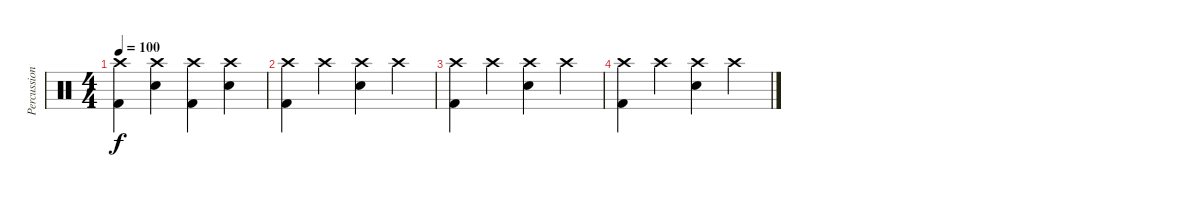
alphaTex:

\track ("Percussion" "Percussion") {instrument percussion}
\staff {score}
\articulation defaults
\ts (4 4)
\tempo 100
\clef neutral
\ks c
("Crash high (hit)" "Kick (hit) 2").4{dy f} ("Crash high (hit)" "Electric Snare (hit)").4 ("Crash high (hit)" "Kick (hit) 2").4 ("Crash high (hit)" "Electric Snare (hit)").4 |
("Crash high (hit)" "Kick (hit) 2").4 "Crash high (hit)".4 ("Crash high (hit)" "Electric Snare (hit)").4 "Crash high (hit)".4 |
("Crash high (hit)" "Kick (hit) 2").4 "Crash high (hit)".4 ("Crash high (hit)" "Electric Snare (hit)").4 "Crash high (hit)".4 |
("Crash high (hit)" "Kick (hit) 2").4 "Crash high (hit)".4 ("Crash high (hit)" "Electric Snare (hit)").4 "Crash high (hit)".4
